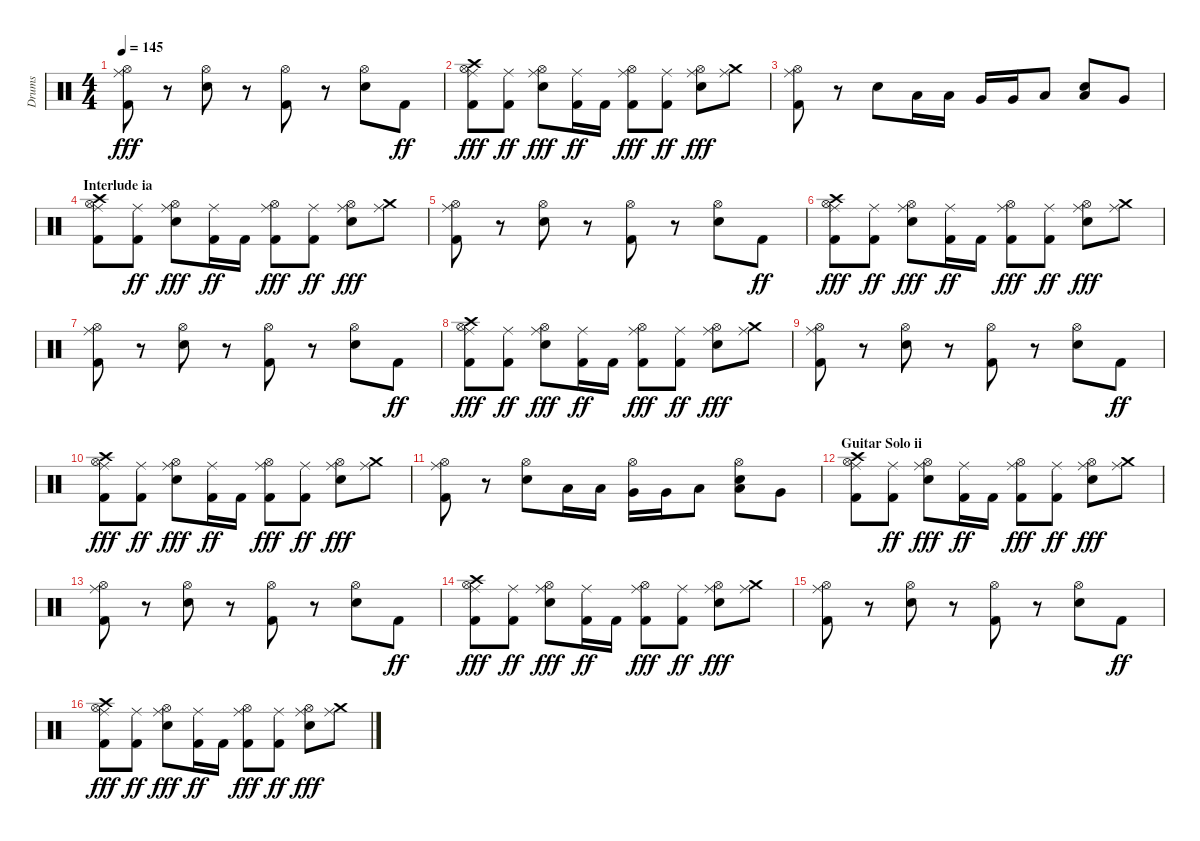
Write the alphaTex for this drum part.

\track ("Drums" "Drums") {instrument percussion}
\staff {score}
\articulation defaults
\ts (4 4)
\tempo 145
\clef neutral
\ks c
("Ride (middle)" "Hi-Hat (open)" "Kick (hit) 2").8{dy fff} r.8 ("Hi-Hat (open)" "Snare (hit) 2").8 r.8 ("Hi-Hat (open)" "Kick (hit) 2").8 r.8 ("Hi-Hat (open)" "Snare (hit) 2").8 "Kick (hit) 2".8{dy ff} |
("Ride (middle)" "Crash high (hit)" "Hi-Hat (open)" "Kick (hit) 2").8{dy fff} ("Ride (middle)" "Kick (hit) 2").8{dy ff} ("Ride (middle)" "Hi-Hat (open)" "Snare (hit) 2").8{dy fff} ("Ride (middle)" "Kick (hit) 2").16{dy ff} "Kick (hit) 2".16 ("Ride (middle)" "Hi-Hat (open)" "Kick (hit) 2").8{dy fff} ("Ride (middle)" "Kick (hit) 2").8{dy ff} ("Ride (middle)" "Hi-Hat (open)" "Snare (hit) 2").8{dy fff} ("Ride (middle)" "Crash medium (hit)").8 |
("Ride (middle)" "Hi-Hat (open)" "Kick (hit) 2").8 r.8 "Snare (hit) 2".8 "Low Tom (hit)".16 "Low Tom (hit)".16 "Very Low Tom (hit)".16 "Very Low Tom (hit)".16 "Low Floor Tom (hit)".8 ("Low Tom (hit)" "Snare (hit) 2").8 "Very Low Tom (hit)".8 |
\section ("" "Interlude ia")
("Ride (middle)" "Crash high (hit)" "Hi-Hat (open)" "Kick (hit) 2").8 ("Ride (middle)" "Kick (hit) 2").8{dy ff} ("Ride (middle)" "Hi-Hat (open)" "Snare (hit) 2").8{dy fff} ("Ride (middle)" "Kick (hit) 2").16{dy ff} "Kick (hit) 2".16 ("Ride (middle)" "Hi-Hat (open)" "Kick (hit) 2").8{dy fff} ("Ride (middle)" "Kick (hit) 2").8{dy ff} ("Ride (middle)" "Hi-Hat (open)" "Snare (hit) 2").8{dy fff} ("Ride (middle)" "Crash medium (hit)").8 |
("Ride (middle)" "Hi-Hat (open)" "Kick (hit) 2").8 r.8 ("Hi-Hat (open)" "Snare (hit) 2").8 r.8 ("Hi-Hat (open)" "Kick (hit) 2").8 r.8 ("Hi-Hat (open)" "Snare (hit) 2").8 "Kick (hit) 2".8{dy ff} |
("Ride (middle)" "Crash high (hit)" "Hi-Hat (open)" "Kick (hit) 2").8{dy fff} ("Ride (middle)" "Kick (hit) 2").8{dy ff} ("Ride (middle)" "Hi-Hat (open)" "Snare (hit) 2").8{dy fff} ("Ride (middle)" "Kick (hit) 2").16{dy ff} "Kick (hit) 2".16 ("Ride (middle)" "Hi-Hat (open)" "Kick (hit) 2").8{dy fff} ("Ride (middle)" "Kick (hit) 2").8{dy ff} ("Ride (middle)" "Hi-Hat (open)" "Snare (hit) 2").8{dy fff} ("Ride (middle)" "Crash medium (hit)").8 |
("Ride (middle)" "Hi-Hat (open)" "Kick (hit) 2").8 r.8 ("Hi-Hat (open)" "Snare (hit) 2").8 r.8 ("Hi-Hat (open)" "Kick (hit) 2").8 r.8 ("Hi-Hat (open)" "Snare (hit) 2").8 "Kick (hit) 2".8{dy ff} |
("Ride (middle)" "Crash high (hit)" "Hi-Hat (open)" "Kick (hit) 2").8{dy fff} ("Ride (middle)" "Kick (hit) 2").8{dy ff} ("Ride (middle)" "Hi-Hat (open)" "Snare (hit) 2").8{dy fff} ("Ride (middle)" "Kick (hit) 2").16{dy ff} "Kick (hit) 2".16 ("Ride (middle)" "Hi-Hat (open)" "Kick (hit) 2").8{dy fff} ("Ride (middle)" "Kick (hit) 2").8{dy ff} ("Ride (middle)" "Hi-Hat (open)" "Snare (hit) 2").8{dy fff} ("Ride (middle)" "Crash medium (hit)").8 |
("Ride (middle)" "Hi-Hat (open)" "Kick (hit) 2").8 r.8 ("Hi-Hat (open)" "Snare (hit) 2").8 r.8 ("Hi-Hat (open)" "Kick (hit) 2").8 r.8 ("Hi-Hat (open)" "Snare (hit) 2").8 "Kick (hit) 2".8{dy ff} |
("Ride (middle)" "Crash high (hit)" "Hi-Hat (open)" "Kick (hit) 2").8{dy fff} ("Ride (middle)" "Kick (hit) 2").8{dy ff} ("Ride (middle)" "Hi-Hat (open)" "Snare (hit) 2").8{dy fff} ("Ride (middle)" "Kick (hit) 2").16{dy ff} "Kick (hit) 2".16 ("Ride (middle)" "Hi-Hat (open)" "Kick (hit) 2").8{dy fff} ("Ride (middle)" "Kick (hit) 2").8{dy ff} ("Ride (middle)" "Hi-Hat (open)" "Snare (hit) 2").8{dy fff} ("Ride (middle)" "Crash medium (hit)").8 |
("Ride (middle)" "Hi-Hat (open)" "Kick (hit) 2").8 r.8 ("Hi-Hat (open)" "Snare (hit) 2").8 "Low Tom (hit)".16 "Low Tom (hit)".16 ("Hi-Hat (open)" "Very Low Tom (hit)").16 "Very Low Tom (hit)".16 "Low Floor Tom (hit)".8 ("Hi-Hat (open)" "Low Tom (hit)" "Snare (hit) 2").8 "Very Low Tom (hit)".8 |
\section ("" "Guitar Solo ii")
("Ride (middle)" "Crash high (hit)" "Hi-Hat (open)" "Kick (hit) 2").8 ("Ride (middle)" "Kick (hit) 2").8{dy ff} ("Ride (middle)" "Hi-Hat (open)" "Snare (hit) 2").8{dy fff} ("Ride (middle)" "Kick (hit) 2").16{dy ff} "Kick (hit) 2".16 ("Ride (middle)" "Hi-Hat (open)" "Kick (hit) 2").8{dy fff} ("Ride (middle)" "Kick (hit) 2").8{dy ff} ("Ride (middle)" "Hi-Hat (open)" "Snare (hit) 2").8{dy fff} ("Ride (middle)" "Crash medium (hit)").8 |
("Ride (middle)" "Hi-Hat (open)" "Kick (hit) 2").8 r.8 ("Hi-Hat (open)" "Snare (hit) 2").8 r.8 ("Hi-Hat (open)" "Kick (hit) 2").8 r.8 ("Hi-Hat (open)" "Snare (hit) 2").8 "Kick (hit) 2".8{dy ff} |
("Ride (middle)" "Crash high (hit)" "Hi-Hat (open)" "Kick (hit) 2").8{dy fff} ("Ride (middle)" "Kick (hit) 2").8{dy ff} ("Ride (middle)" "Hi-Hat (open)" "Snare (hit) 2").8{dy fff} ("Ride (middle)" "Kick (hit) 2").16{dy ff} "Kick (hit) 2".16 ("Ride (middle)" "Hi-Hat (open)" "Kick (hit) 2").8{dy fff} ("Ride (middle)" "Kick (hit) 2").8{dy ff} ("Ride (middle)" "Hi-Hat (open)" "Snare (hit) 2").8{dy fff} ("Ride (middle)" "Crash medium (hit)").8 |
("Ride (middle)" "Hi-Hat (open)" "Kick (hit) 2").8 r.8 ("Hi-Hat (open)" "Snare (hit) 2").8 r.8 ("Hi-Hat (open)" "Kick (hit) 2").8 r.8 ("Hi-Hat (open)" "Snare (hit) 2").8 "Kick (hit) 2".8{dy ff} |
("Ride (middle)" "Crash high (hit)" "Hi-Hat (open)" "Kick (hit) 2").8{dy fff} ("Ride (middle)" "Kick (hit) 2").8{dy ff} ("Ride (middle)" "Hi-Hat (open)" "Snare (hit) 2").8{dy fff} ("Ride (middle)" "Kick (hit) 2").16{dy ff} "Kick (hit) 2".16 ("Ride (middle)" "Hi-Hat (open)" "Kick (hit) 2").8{dy fff} ("Ride (middle)" "Kick (hit) 2").8{dy ff} ("Ride (middle)" "Hi-Hat (open)" "Snare (hit) 2").8{dy fff} ("Ride (middle)" "Crash medium (hit)").8
